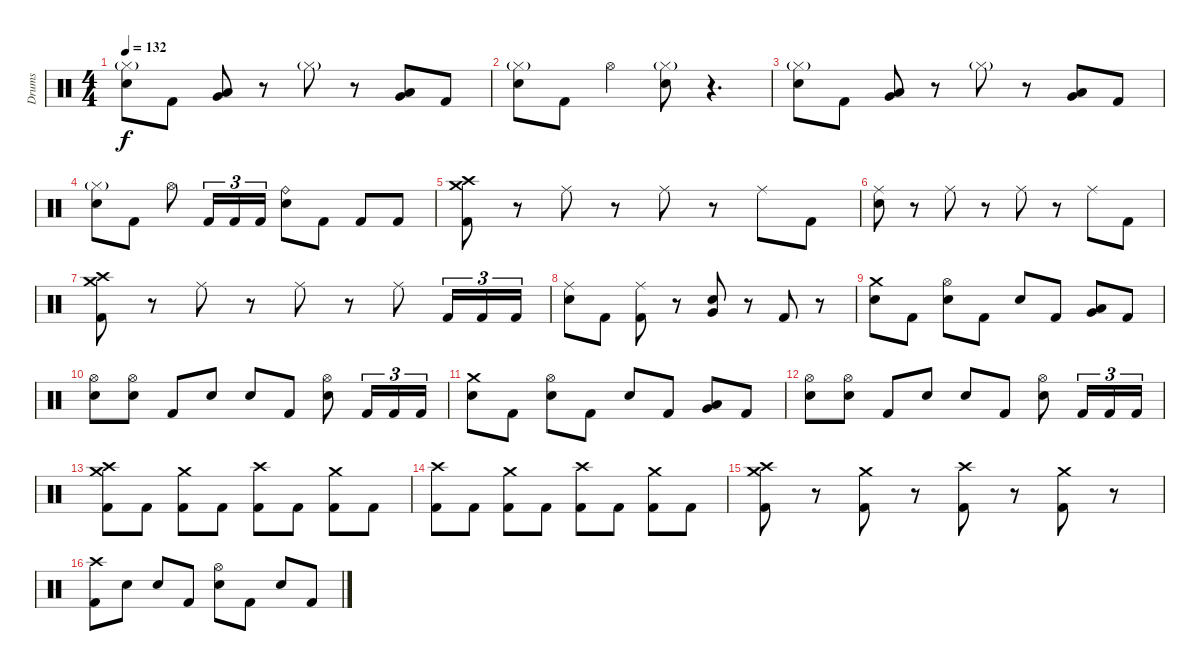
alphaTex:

\track ("Drums" "Drums") {instrument percussion}
\staff {score}
\articulation defaults
\ts (4 4)
\tempo 132
\clef neutral
\ks c
("Hi-Hat (closed)"{g} "Electric Snare (hit)").8{dy f} "Kick (hit) 2".8 ("Very Low Tom (hit)" "Low Tom (hit)").8 r.8 "Hi-Hat (closed)"{g}.8 r.8 ("Very Low Tom (hit)" "Low Tom (hit)").8 "Kick (hit) 2".8 |
("Hi-Hat (closed)"{g} "Electric Snare (hit)").8 "Kick (hit) 2".8 "Hi-Hat (open)".4 ("Hi-Hat (closed)"{g} "Electric Snare (hit)").8 r.4{d} |
("Hi-Hat (closed)"{g} "Electric Snare (hit)").8 "Kick (hit) 2".8 ("Very Low Tom (hit)" "Low Tom (hit)").8 r.8 "Hi-Hat (closed)"{g}.8 r.8 ("Very Low Tom (hit)" "Low Tom (hit)").8 "Kick (hit) 2".8 |
("Hi-Hat (closed)"{g} "Electric Snare (hit)").8 "Kick (hit) 2".8 "Hi-Hat (open)".8 "Kick (hit) 2".16{tu (3 2)} "Kick (hit) 2".16{tu (3 2)} "Kick (hit) 2".16{tu (3 2)} ("Ride (bell)" "Electric Snare (hit)").8 "Kick (hit) 2".8 "Kick (hit) 2".8 "Kick (hit) 2".8 |
("Crash medium (hit)" "Crash high (hit)" "Kick (hit) 2").8 r.8 "Ride (middle)".8 r.8 "Ride (middle)".8 r.8 "Ride (middle)".8 "Kick (hit) 2".8 |
("Ride (middle)" "Electric Snare (hit)").8 r.8 "Ride (middle)".8 r.8 "Ride (middle)".8 r.8 "Ride (middle)".8 "Kick (hit) 2".8 |
("Crash medium (hit)" "Crash high (hit)" "Kick (hit) 2").8 r.8 "Ride (middle)".8 r.8 "Ride (middle)".8 r.8 "Ride (middle)".8 "Kick (hit) 2".16{tu (3 2)} "Kick (hit) 2".16{tu (3 2)} "Kick (hit) 2".16{tu (3 2)} |
("Ride (middle)" "Electric Snare (hit)").8 "Kick (hit) 2".8 ("Ride (middle)" "Kick (hit) 2").8 r.8 ("Very Low Tom (hit)" "Electric Snare (hit)").8 r.8 "Kick (hit) 2".8 r.8 |
("Crash medium (hit)" "Electric Snare (hit)").8 "Kick (hit) 2".8 ("Hi-Hat (open)" "Electric Snare (hit)").8 "Kick (hit) 2".8 "Electric Snare (hit)".8 "Kick (hit) 2".8 ("Very Low Tom (hit)" "Low Tom (hit)").8{bd 480} "Kick (hit) 2".8 |
("Hi-Hat (open)" "Electric Snare (hit)").8 ("Hi-Hat (open)" "Electric Snare (hit)").8 "Kick (hit) 2".8 "Electric Snare (hit)".8 "Electric Snare (hit)".8 "Kick (hit) 2".8 ("Hi-Hat (open)" "Electric Snare (hit)").8 "Kick (hit) 2".16{tu (3 2)} "Kick (hit) 2".16{tu (3 2)} "Kick (hit) 2".16{tu (3 2)} |
("Crash medium (hit)" "Electric Snare (hit)").8 "Kick (hit) 2".8 ("Hi-Hat (open)" "Electric Snare (hit)").8 "Kick (hit) 2".8 "Electric Snare (hit)".8 "Kick (hit) 2".8 ("Very Low Tom (hit)" "Low Tom (hit)").8{bd 480} "Kick (hit) 2".8 |
("Hi-Hat (open)" "Electric Snare (hit)").8 ("Hi-Hat (open)" "Electric Snare (hit)").8 "Kick (hit) 2".8 "Electric Snare (hit)".8 "Electric Snare (hit)".8 "Kick (hit) 2".8 ("Hi-Hat (open)" "Electric Snare (hit)").8 "Kick (hit) 2".16{tu (3 2)} "Kick (hit) 2".16{tu (3 2)} "Kick (hit) 2".16{tu (3 2)} |
("Crash medium (hit)" "Crash high (hit)" "Kick (hit) 2").8 "Kick (hit) 2".8 ("Crash medium (hit)" "Kick (hit) 2").8 "Kick (hit) 2".8 ("Crash high (hit)" "Kick (hit) 2").8 "Kick (hit) 2".8 ("Crash medium (hit)" "Kick (hit) 2").8 "Kick (hit) 2".8 |
("Crash high (hit)" "Kick (hit) 2").8 "Kick (hit) 2".8 ("Crash medium (hit)" "Kick (hit) 2").8 "Kick (hit) 2".8 ("Crash high (hit)" "Kick (hit) 2").8 "Kick (hit) 2".8 ("Crash medium (hit)" "Kick (hit) 2").8 "Kick (hit) 2".8 |
("Crash medium (hit)" "Crash high (hit)" "Kick (hit) 2").8 r.8 ("Crash medium (hit)" "Kick (hit) 2").8 r.8 ("Crash high (hit)" "Kick (hit) 2").8 r.8 ("Crash medium (hit)" "Kick (hit) 2").8 r.8 |
("Crash high (hit)" "Kick (hit) 2").8 "Electric Snare (hit)".8 "Electric Snare (hit)".8 "Kick (hit) 2".8 ("Hi-Hat (open)" "Electric Snare (hit)").8 "Kick (hit) 2".8 "Electric Snare (hit)".8 "Kick (hit) 2".8
